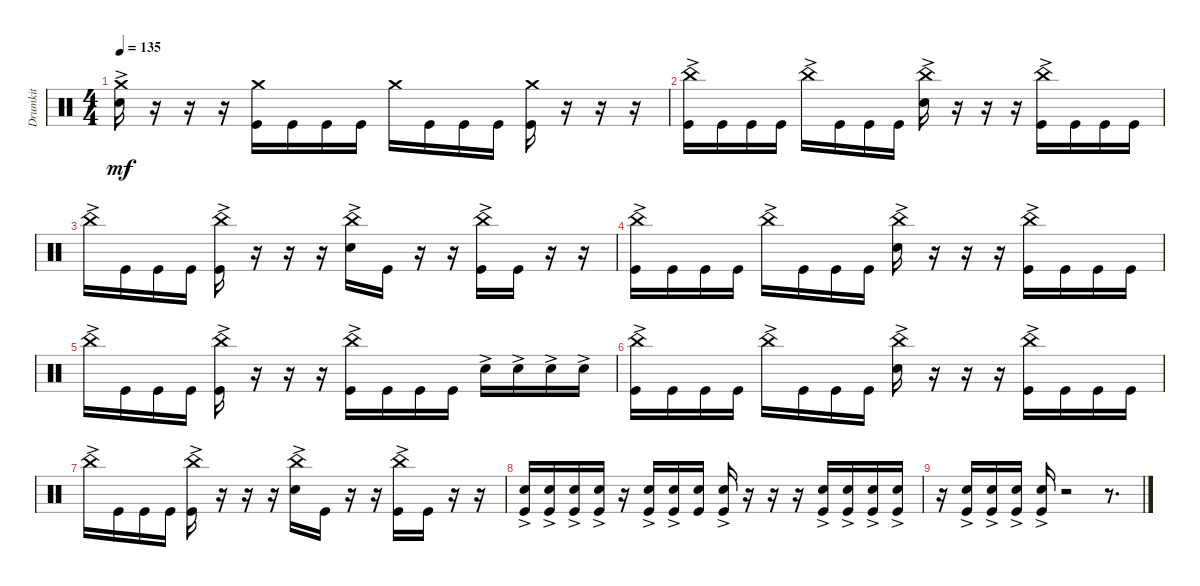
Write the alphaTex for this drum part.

\track ("Drumkit" "Drumkit") {instrument percussion}
\staff {score}
\articulation defaults
\ts (4 4)
\tempo 135
\clef neutral
\ks c
("Snare (hit) 2"{ac} "Crash medium (hit)").16{dy mf} r.16 r.16 r.16 ("Kick (hit)" "Crash medium (hit)").16 "Kick (hit)".16 "Kick (hit)".16 "Kick (hit)".16 "Crash medium (hit)".16 "Kick (hit)".16 "Kick (hit)".16 "Kick (hit)".16 ("Crash medium (hit)" "Kick (hit)").16 r.16 r.16 r.16 |
("Kick (hit)" "China (hit)"{ac}).16 "Kick (hit)".16 "Kick (hit)".16 "Kick (hit)".16 "China (hit)"{ac}.16 "Kick (hit)".16 "Kick (hit)".16 "Kick (hit)".16 ("Snare (hit) 2"{ac} "China (hit)"{ac}).16 r.16 r.16 r.16 ("Kick (hit)" "China (hit)"{ac}).16 "Kick (hit)".16 "Kick (hit)".16 "Kick (hit)".16 |
"China (hit)"{ac}.16 "Kick (hit)".16 "Kick (hit)".16 "Kick (hit)".16 ("Kick (hit)" "China (hit)"{ac}).16 r.16 r.16 r.16 ("Snare (hit) 2" "China (hit)"{ac}).16 "Kick (hit)".16 r.16 r.16 ("Kick (hit)" "China (hit)"{ac}).16 "Kick (hit)".16 r.16 r.16 |
("Kick (hit)" "China (hit)"{ac}).16 "Kick (hit)".16 "Kick (hit)".16 "Kick (hit)".16 "China (hit)"{ac}.16 "Kick (hit)".16 "Kick (hit)".16 "Kick (hit)".16 ("Snare (hit) 2"{ac} "China (hit)"{ac}).16 r.16 r.16 r.16 ("Kick (hit)" "China (hit)"{ac}).16 "Kick (hit)".16 "Kick (hit)".16 "Kick (hit)".16 |
"China (hit)"{ac}.16 "Kick (hit)".16 "Kick (hit)".16 "Kick (hit)".16 ("Kick (hit)" "China (hit)"{ac}).16 r.16 r.16 r.16 ("Kick (hit)" "China (hit)"{ac}).16 "Kick (hit)".16 "Kick (hit)".16 "Kick (hit)".16 "Snare (hit) 2"{ac}.16 "Snare (hit) 2"{ac}.16 "Snare (hit) 2"{ac}.16 "Snare (hit) 2"{ac}.16 |
("Kick (hit)" "China (hit)"{ac}).16 "Kick (hit)".16 "Kick (hit)".16 "Kick (hit)".16 "China (hit)"{ac}.16 "Kick (hit)".16 "Kick (hit)".16 "Kick (hit)".16 ("Snare (hit) 2"{ac} "China (hit)"{ac}).16 r.16 r.16 r.16 ("Kick (hit)" "China (hit)"{ac}).16 "Kick (hit)".16 "Kick (hit)".16 "Kick (hit)".16 |
"China (hit)"{ac}.16 "Kick (hit)".16 "Kick (hit)".16 "Kick (hit)".16 ("Kick (hit)" "China (hit)"{ac}).16 r.16 r.16 r.16 ("Snare (hit) 2" "China (hit)"{ac}).16 "Kick (hit)".16 r.16 r.16 ("Kick (hit)" "China (hit)"{ac}).16 "Kick (hit)".16 r.16 r.16 |
("Kick (hit)" "Snare (hit) 2"{ac}).16 ("Kick (hit)" "Snare (hit) 2"{ac}).16 ("Kick (hit)" "Snare (hit) 2"{ac}).16 ("Kick (hit)" "Snare (hit) 2"{ac}).16 r.16 ("Kick (hit)" "Snare (hit) 2"{ac}).16 ("Kick (hit)" "Snare (hit) 2"{ac}).16 ("Kick (hit)" "Snare (hit) 2").16 ("Kick (hit)" "Snare (hit) 2"{ac}).16 r.16 r.16 r.16 ("Kick (hit)" "Snare (hit) 2"{ac}).16 ("Kick (hit)" "Snare (hit) 2"{ac}).16 ("Kick (hit)" "Snare (hit) 2"{ac}).16 ("Kick (hit)" "Snare (hit) 2"{ac}).16 |
r.16 ("Kick (hit)" "Snare (hit) 2"{ac}).16 ("Kick (hit)" "Snare (hit) 2"{ac}).16 ("Kick (hit)" "Snare (hit) 2"{ac}).16 ("Kick (hit)" "Snare (hit) 2"{ac}).16 r.2 r.8{d}
